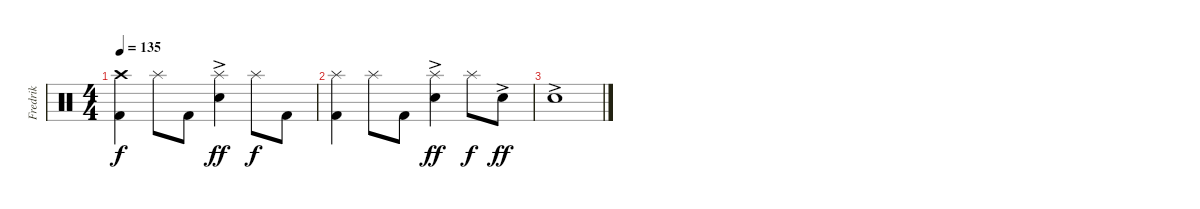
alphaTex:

\track ("Fredrik" "Fredrik") {instrument percussion}
\staff {score}
\articulation defaults
\ts (4 4)
\section ("" "")
\tempo 135
\clef neutral
\ks c
("Kick (hit) 2" "Crash high (hit)").4{dy f} "Splash (hit)".8 "Kick (hit) 2".8 ("Snare (hit) 2"{ac} "Splash (hit)").4{dy ff} "Splash (hit)".8{dy f} "Kick (hit) 2".8 |
("Kick (hit) 2" "Splash (hit)").4 "Splash (hit)".8 "Kick (hit) 2".8 ("Snare (hit) 2"{ac} "Splash (hit)").4{dy ff} "Splash (hit)".8{dy f} "Snare (hit) 2"{ac}.8{dy ff} |
"Snare (hit) 2"{ac}.1
